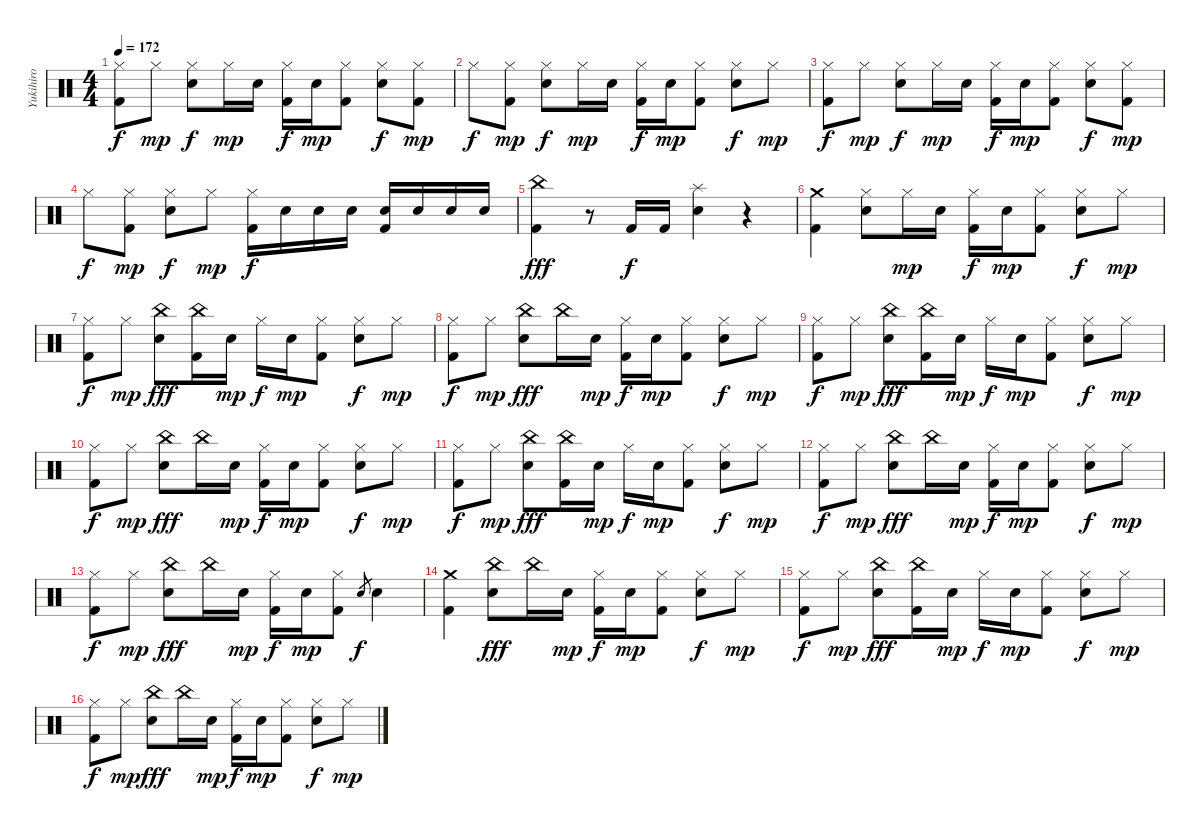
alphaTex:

\track ("Yukihiro" "Yukihiro") {instrument percussion}
\staff {score}
\articulation defaults
\ts (4 4)
\tempo 172
\clef neutral
\ks c
("Hi-Hat (closed)" "Kick (hit) 2").8{dy f} "Hi-Hat (closed)".8{dy mp} ("Hi-Hat (closed)" "Electric Snare (hit)").8{dy f} "Hi-Hat (closed)".16{dy mp} "Electric Snare (hit)".16 ("Hi-Hat (closed)" "Kick (hit) 2").16{dy f} "Electric Snare (hit)".16{dy mp} ("Hi-Hat (closed)" "Kick (hit) 2").8 ("Hi-Hat (closed)" "Electric Snare (hit)").8{dy f} ("Hi-Hat (closed)" "Kick (hit) 2").8{dy mp} |
"Hi-Hat (closed)".8{dy f} ("Hi-Hat (closed)" "Kick (hit) 2").8{dy mp} ("Hi-Hat (closed)" "Electric Snare (hit)").8{dy f} "Hi-Hat (closed)".16{dy mp} "Electric Snare (hit)".16 ("Hi-Hat (closed)" "Kick (hit) 2").16{dy f} "Electric Snare (hit)".16{dy mp} ("Hi-Hat (closed)" "Kick (hit) 2").8 ("Hi-Hat (closed)" "Electric Snare (hit)").8{dy f} "Hi-Hat (closed)".8{dy mp} |
("Hi-Hat (closed)" "Kick (hit) 2").8{dy f} "Hi-Hat (closed)".8{dy mp} ("Hi-Hat (closed)" "Electric Snare (hit)").8{dy f} "Hi-Hat (closed)".16{dy mp} "Electric Snare (hit)".16 ("Hi-Hat (closed)" "Kick (hit) 2").16{dy f} "Electric Snare (hit)".16{dy mp} ("Hi-Hat (closed)" "Kick (hit) 2").8 ("Hi-Hat (closed)" "Electric Snare (hit)").8{dy f} ("Hi-Hat (closed)" "Kick (hit) 2").8{dy mp} |
"Hi-Hat (closed)".8{dy f} ("Hi-Hat (closed)" "Kick (hit) 2").8{dy mp} ("Hi-Hat (closed)" "Electric Snare (hit)").8{dy f} "Hi-Hat (closed)".8{dy mp} ("Hi-Hat (closed)" "Kick (hit) 2").16{dy f} "Electric Snare (hit)".16 "Electric Snare (hit)".16 "Electric Snare (hit)".16 ("Electric Snare (hit)" "Kick (hit) 2").16 "Electric Snare (hit)".16 "Electric Snare (hit)".16 "Electric Snare (hit)".16 |
("China (hit)" "Kick (hit) 2").4{dy fff} r.8 "Kick (hit) 2".16{dy f} "Kick (hit) 2".16 ("Splash (hit)" "Electric Snare (hit)").4 r.4 |
("Crash medium (hit)" "Kick (hit) 2").4 ("Hi-Hat (closed)" "Electric Snare (hit)").8 "Hi-Hat (closed)".16{dy mp} "Electric Snare (hit)".16 ("Hi-Hat (closed)" "Kick (hit) 2").16{dy f} "Electric Snare (hit)".16{dy mp} ("Hi-Hat (closed)" "Kick (hit) 2").8 ("Hi-Hat (closed)" "Electric Snare (hit)").8{dy f} "Hi-Hat (closed)".8{dy mp} |
("Hi-Hat (closed)" "Kick (hit) 2").8{dy f} "Hi-Hat (closed)".8{dy mp} ("China (hit)" "Electric Snare (hit)").8{dy fff} ("China (hit)" "Kick (hit) 2").16 "Electric Snare (hit)".16{dy mp} "Hi-Hat (closed)".16{dy f} "Electric Snare (hit)".16{dy mp} ("Hi-Hat (closed)" "Kick (hit) 2").8 ("Hi-Hat (closed)" "Electric Snare (hit)").8{dy f} "Hi-Hat (closed)".8{dy mp} |
("Hi-Hat (closed)" "Kick (hit) 2").8{dy f} "Hi-Hat (closed)".8{dy mp} ("China (hit)" "Electric Snare (hit)").8{dy fff} "China (hit)".16 "Electric Snare (hit)".16{dy mp} ("Hi-Hat (closed)" "Kick (hit) 2").16{dy f} "Electric Snare (hit)".16{dy mp} ("Hi-Hat (closed)" "Kick (hit) 2").8 ("Hi-Hat (closed)" "Electric Snare (hit)").8{dy f} "Hi-Hat (closed)".8{dy mp} |
("Hi-Hat (closed)" "Kick (hit) 2").8{dy f} "Hi-Hat (closed)".8{dy mp} ("China (hit)" "Electric Snare (hit)").8{dy fff} ("China (hit)" "Kick (hit) 2").16 "Electric Snare (hit)".16{dy mp} "Hi-Hat (closed)".16{dy f} "Electric Snare (hit)".16{dy mp} ("Hi-Hat (closed)" "Kick (hit) 2").8 ("Hi-Hat (closed)" "Electric Snare (hit)").8{dy f} "Hi-Hat (closed)".8{dy mp} |
("Hi-Hat (closed)" "Kick (hit) 2").8{dy f} "Hi-Hat (closed)".8{dy mp} ("China (hit)" "Electric Snare (hit)").8{dy fff} "China (hit)".16 "Electric Snare (hit)".16{dy mp} ("Hi-Hat (closed)" "Kick (hit) 2").16{dy f} "Electric Snare (hit)".16{dy mp} ("Hi-Hat (closed)" "Kick (hit) 2").8 ("Hi-Hat (closed)" "Electric Snare (hit)").8{dy f} "Hi-Hat (closed)".8{dy mp} |
("Hi-Hat (closed)" "Kick (hit) 2").8{dy f} "Hi-Hat (closed)".8{dy mp} ("China (hit)" "Electric Snare (hit)").8{dy fff} ("China (hit)" "Kick (hit) 2").16 "Electric Snare (hit)".16{dy mp} "Hi-Hat (closed)".16{dy f} "Electric Snare (hit)".16{dy mp} ("Hi-Hat (closed)" "Kick (hit) 2").8 ("Hi-Hat (closed)" "Electric Snare (hit)").8{dy f} "Hi-Hat (closed)".8{dy mp} |
("Hi-Hat (closed)" "Kick (hit) 2").8{dy f} "Hi-Hat (closed)".8{dy mp} ("China (hit)" "Electric Snare (hit)").8{dy fff} "China (hit)".16 "Electric Snare (hit)".16{dy mp} ("Hi-Hat (closed)" "Kick (hit) 2").16{dy f} "Electric Snare (hit)".16{dy mp} ("Hi-Hat (closed)" "Kick (hit) 2").8 ("Hi-Hat (closed)" "Electric Snare (hit)").8{dy f} "Hi-Hat (closed)".8{dy mp} |
("Hi-Hat (closed)" "Kick (hit) 2").8{dy f} "Hi-Hat (closed)".8{dy mp} ("China (hit)" "Electric Snare (hit)").8{dy fff} "China (hit)".16 "Electric Snare (hit)".16{dy mp} ("Hi-Hat (closed)" "Kick (hit) 2").16{dy f} "Electric Snare (hit)".16{dy mp} ("Hi-Hat (closed)" "Kick (hit) 2").8 "Electric Snare (hit)".8{gr dy f} "Electric Snare (hit)".4 |
("Crash medium (hit)" "Kick (hit) 2").4 ("China (hit)" "Electric Snare (hit)").8{dy fff} "China (hit)".16 "Electric Snare (hit)".16{dy mp} ("Hi-Hat (closed)" "Kick (hit) 2").16{dy f} "Electric Snare (hit)".16{dy mp} ("Hi-Hat (closed)" "Kick (hit) 2").8 ("Hi-Hat (closed)" "Electric Snare (hit)").8{dy f} "Hi-Hat (closed)".8{dy mp} |
("Hi-Hat (closed)" "Kick (hit) 2").8{dy f} "Hi-Hat (closed)".8{dy mp} ("China (hit)" "Electric Snare (hit)").8{dy fff} ("China (hit)" "Kick (hit) 2").16 "Electric Snare (hit)".16{dy mp} "Hi-Hat (closed)".16{dy f} "Electric Snare (hit)".16{dy mp} ("Hi-Hat (closed)" "Kick (hit) 2").8 ("Hi-Hat (closed)" "Electric Snare (hit)").8{dy f} "Hi-Hat (closed)".8{dy mp} |
("Hi-Hat (closed)" "Kick (hit) 2").8{dy f} "Hi-Hat (closed)".8{dy mp} ("China (hit)" "Electric Snare (hit)").8{dy fff} "China (hit)".16 "Electric Snare (hit)".16{dy mp} ("Hi-Hat (closed)" "Kick (hit) 2").16{dy f} "Electric Snare (hit)".16{dy mp} ("Hi-Hat (closed)" "Kick (hit) 2").8 ("Hi-Hat (closed)" "Electric Snare (hit)").8{dy f} "Hi-Hat (closed)".8{dy mp}
